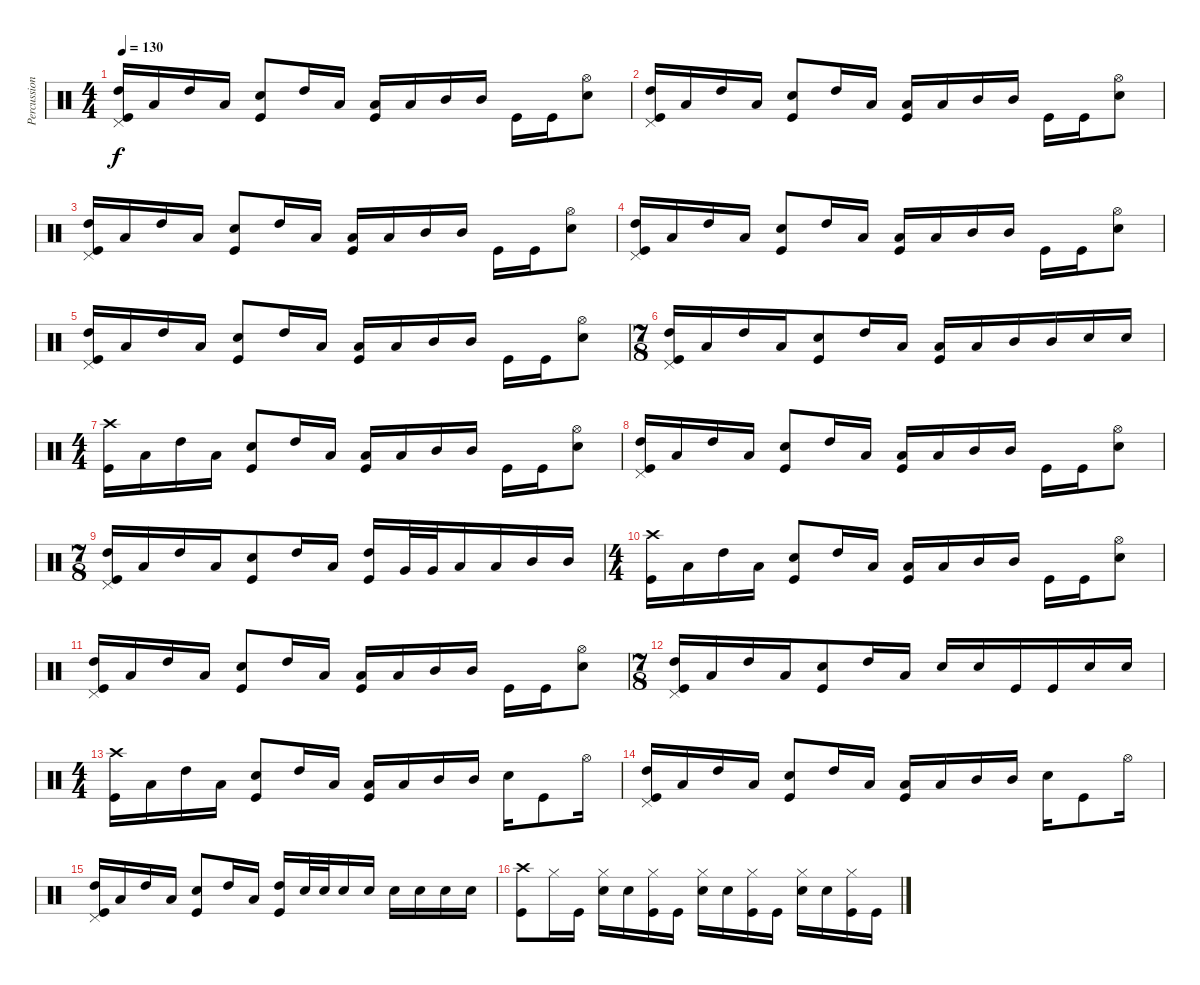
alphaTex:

\track ("Percussion" "Percussion") {instrument percussion}
\staff {score}
\articulation defaults
\ts (4 4)
\tempo 130
\clef neutral
\ks c
("High Tom (hit)" "Kick (hit)" "Pedal Hi-Hat (hit)").16{dy f} "Low Tom (hit)".16 "High Tom (hit)".16 "Low Tom (hit)".16 ("Snare (hit) 2" "Kick (hit)").8 "High Tom (hit)".16 "Low Tom (hit)".16 ("Kick (hit)" "Low Tom (hit)").16 "Low Tom (hit)".16 "Mid Tom (hit)".16 "Mid Tom (hit)".16 "Kick (hit)".16 "Kick (hit)".16 ("Snare (hit) 2" "Hi-Hat (open)").8 |
("High Tom (hit)" "Kick (hit)" "Pedal Hi-Hat (hit)").16 "Low Tom (hit)".16 "High Tom (hit)".16 "Low Tom (hit)".16 ("Snare (hit) 2" "Kick (hit)").8 "High Tom (hit)".16 "Low Tom (hit)".16 ("Kick (hit)" "Low Tom (hit)").16 "Low Tom (hit)".16 "Mid Tom (hit)".16 "Mid Tom (hit)".16 "Kick (hit)".16 "Kick (hit)".16 ("Snare (hit) 2" "Hi-Hat (open)").8 |
("High Tom (hit)" "Kick (hit)" "Pedal Hi-Hat (hit)").16 "Low Tom (hit)".16 "High Tom (hit)".16 "Low Tom (hit)".16 ("Snare (hit) 2" "Kick (hit)").8 "High Tom (hit)".16 "Low Tom (hit)".16 ("Kick (hit)" "Low Tom (hit)").16 "Low Tom (hit)".16 "Mid Tom (hit)".16 "Mid Tom (hit)".16 "Kick (hit)".16 "Kick (hit)".16 ("Snare (hit) 2" "Hi-Hat (open)").8 |
("High Tom (hit)" "Kick (hit)" "Pedal Hi-Hat (hit)").16 "Low Tom (hit)".16 "High Tom (hit)".16 "Low Tom (hit)".16 ("Snare (hit) 2" "Kick (hit)").8 "High Tom (hit)".16 "Low Tom (hit)".16 ("Kick (hit)" "Low Tom (hit)").16 "Low Tom (hit)".16 "Mid Tom (hit)".16 "Mid Tom (hit)".16 "Kick (hit)".16 "Kick (hit)".16 ("Snare (hit) 2" "Hi-Hat (open)").8 |
("High Tom (hit)" "Kick (hit)" "Pedal Hi-Hat (hit)").16 "Low Tom (hit)".16 "High Tom (hit)".16 "Low Tom (hit)".16 ("Snare (hit) 2" "Kick (hit)").8 "High Tom (hit)".16 "Low Tom (hit)".16 ("Kick (hit)" "Low Tom (hit)").16 "Low Tom (hit)".16 "Mid Tom (hit)".16 "Mid Tom (hit)".16 "Kick (hit)".16 "Kick (hit)".16 ("Snare (hit) 2" "Hi-Hat (open)").8 |
\ts (7 8)
("High Tom (hit)" "Kick (hit)" "Pedal Hi-Hat (hit)").16 "Low Tom (hit)".16 "High Tom (hit)".16 "Low Tom (hit)".16 ("Snare (hit) 2" "Kick (hit)").8 "High Tom (hit)".16 "Low Tom (hit)".16 ("Kick (hit)" "Low Tom (hit)").16 "Low Tom (hit)".16 "Mid Tom (hit)".16 "Mid Tom (hit)".16 "Snare (hit) 2".16 "Snare (hit) 2".16 |
\ts (4 4)
("Kick (hit)" "Crash high (hit)").16 "Low Tom (hit)".16 "High Tom (hit)".16 "Low Tom (hit)".16 ("Snare (hit) 2" "Kick (hit)").8 "High Tom (hit)".16 "Low Tom (hit)".16 ("Kick (hit)" "Low Tom (hit)").16 "Low Tom (hit)".16 "Mid Tom (hit)".16 "Mid Tom (hit)".16 "Kick (hit)".16 "Kick (hit)".16 ("Snare (hit) 2" "Hi-Hat (open)").8 |
("High Tom (hit)" "Kick (hit)" "Pedal Hi-Hat (hit)").16 "Low Tom (hit)".16 "High Tom (hit)".16 "Low Tom (hit)".16 ("Snare (hit) 2" "Kick (hit)").8 "High Tom (hit)".16 "Low Tom (hit)".16 ("Kick (hit)" "Low Tom (hit)").16 "Low Tom (hit)".16 "Mid Tom (hit)".16 "Mid Tom (hit)".16 "Kick (hit)".16 "Kick (hit)".16 ("Snare (hit) 2" "Hi-Hat (open)").8 |
\ts (7 8)
("High Tom (hit)" "Kick (hit)" "Pedal Hi-Hat (hit)").16 "Low Tom (hit)".16 "High Tom (hit)".16 "Low Tom (hit)".16 ("Snare (hit) 2" "Kick (hit)").8 "High Tom (hit)".16 "Low Tom (hit)".16 ("Kick (hit)" "High Tom (hit)").16 "Very Low Tom (hit)".32 "Very Low Tom (hit)".32 "Low Tom (hit)".16 "Low Tom (hit)".16 "Mid Tom (hit)".16 "Mid Tom (hit)".16 |
\ts (4 4)
("Kick (hit)" "Crash high (hit)").16 "Low Tom (hit)".16 "High Tom (hit)".16 "Low Tom (hit)".16 ("Snare (hit) 2" "Kick (hit)").8 "High Tom (hit)".16 "Low Tom (hit)".16 ("Kick (hit)" "Low Tom (hit)").16 "Low Tom (hit)".16 "Mid Tom (hit)".16 "Mid Tom (hit)".16 "Kick (hit)".16 "Kick (hit)".16 ("Snare (hit) 2" "Hi-Hat (open)").8 |
("High Tom (hit)" "Kick (hit)" "Pedal Hi-Hat (hit)").16 "Low Tom (hit)".16 "High Tom (hit)".16 "Low Tom (hit)".16 ("Snare (hit) 2" "Kick (hit)").8 "High Tom (hit)".16 "Low Tom (hit)".16 ("Kick (hit)" "Low Tom (hit)").16 "Low Tom (hit)".16 "Mid Tom (hit)".16 "Mid Tom (hit)".16 "Kick (hit)".16 "Kick (hit)".16 ("Snare (hit) 2" "Hi-Hat (open)").8 |
\ts (7 8)
("High Tom (hit)" "Kick (hit)" "Pedal Hi-Hat (hit)").16 "Low Tom (hit)".16 "High Tom (hit)".16 "Low Tom (hit)".16 ("Snare (hit) 2" "Kick (hit)").8 "High Tom (hit)".16 "Low Tom (hit)".16 "Snare (hit) 2".16 "Snare (hit) 2".16 "Kick (hit)".16 "Kick (hit)".16 "Snare (hit) 2".16 "Snare (hit) 2".16 |
\ts (4 4)
("Kick (hit)" "Crash high (hit)").16 "Low Tom (hit)".16 "High Tom (hit)".16 "Low Tom (hit)".16 ("Snare (hit) 2" "Kick (hit)").8 "High Tom (hit)".16 "Low Tom (hit)".16 ("Kick (hit)" "Low Tom (hit)").16 "Low Tom (hit)".16 "Mid Tom (hit)".16 "Mid Tom (hit)".16 "Electric Snare (hit)".16 "Kick (hit)".8 "Hi-Hat (open)".16 |
("High Tom (hit)" "Kick (hit)" "Pedal Hi-Hat (hit)").16 "Low Tom (hit)".16 "High Tom (hit)".16 "Low Tom (hit)".16 ("Snare (hit) 2" "Kick (hit)").8 "High Tom (hit)".16 "Low Tom (hit)".16 ("Kick (hit)" "Low Tom (hit)").16 "Low Tom (hit)".16 "Mid Tom (hit)".16 "Mid Tom (hit)".16 "Electric Snare (hit)".16 "Kick (hit)".8 "Hi-Hat (open)".16 |
("High Tom (hit)" "Kick (hit)" "Pedal Hi-Hat (hit)").16 "Low Tom (hit)".16 "High Tom (hit)".16 "Low Tom (hit)".16 ("Snare (hit) 2" "Kick (hit)").8 "High Tom (hit)".16 "Low Tom (hit)".16 ("High Tom (hit)" "Kick (hit)").16 "Snare (hit) 2".32 "Snare (hit) 2".32 "Snare (hit) 2".16 "Snare (hit) 2".16 "Snare (hit) 2".16 "Snare (hit) 2".16 "Snare (hit) 2".16 "Snare (hit) 2".16 |
("Crash high (hit)" "Kick (hit)").8 "Hi-Hat (closed)".16 "Kick (hit)".16 ("Snare (hit) 2" "Hi-Hat (closed)").16 "Snare (hit) 2".16 ("Kick (hit)" "Hi-Hat (closed)").16 "Kick (hit)".16 ("Snare (hit) 2" "Hi-Hat (closed)").16 "Snare (hit) 2".16 ("Kick (hit)" "Hi-Hat (closed)").16 "Kick (hit)".16 ("Snare (hit) 2" "Hi-Hat (closed)").16 "Snare (hit) 2".16 ("Kick (hit)" "Hi-Hat (closed)").16 "Kick (hit)".16
